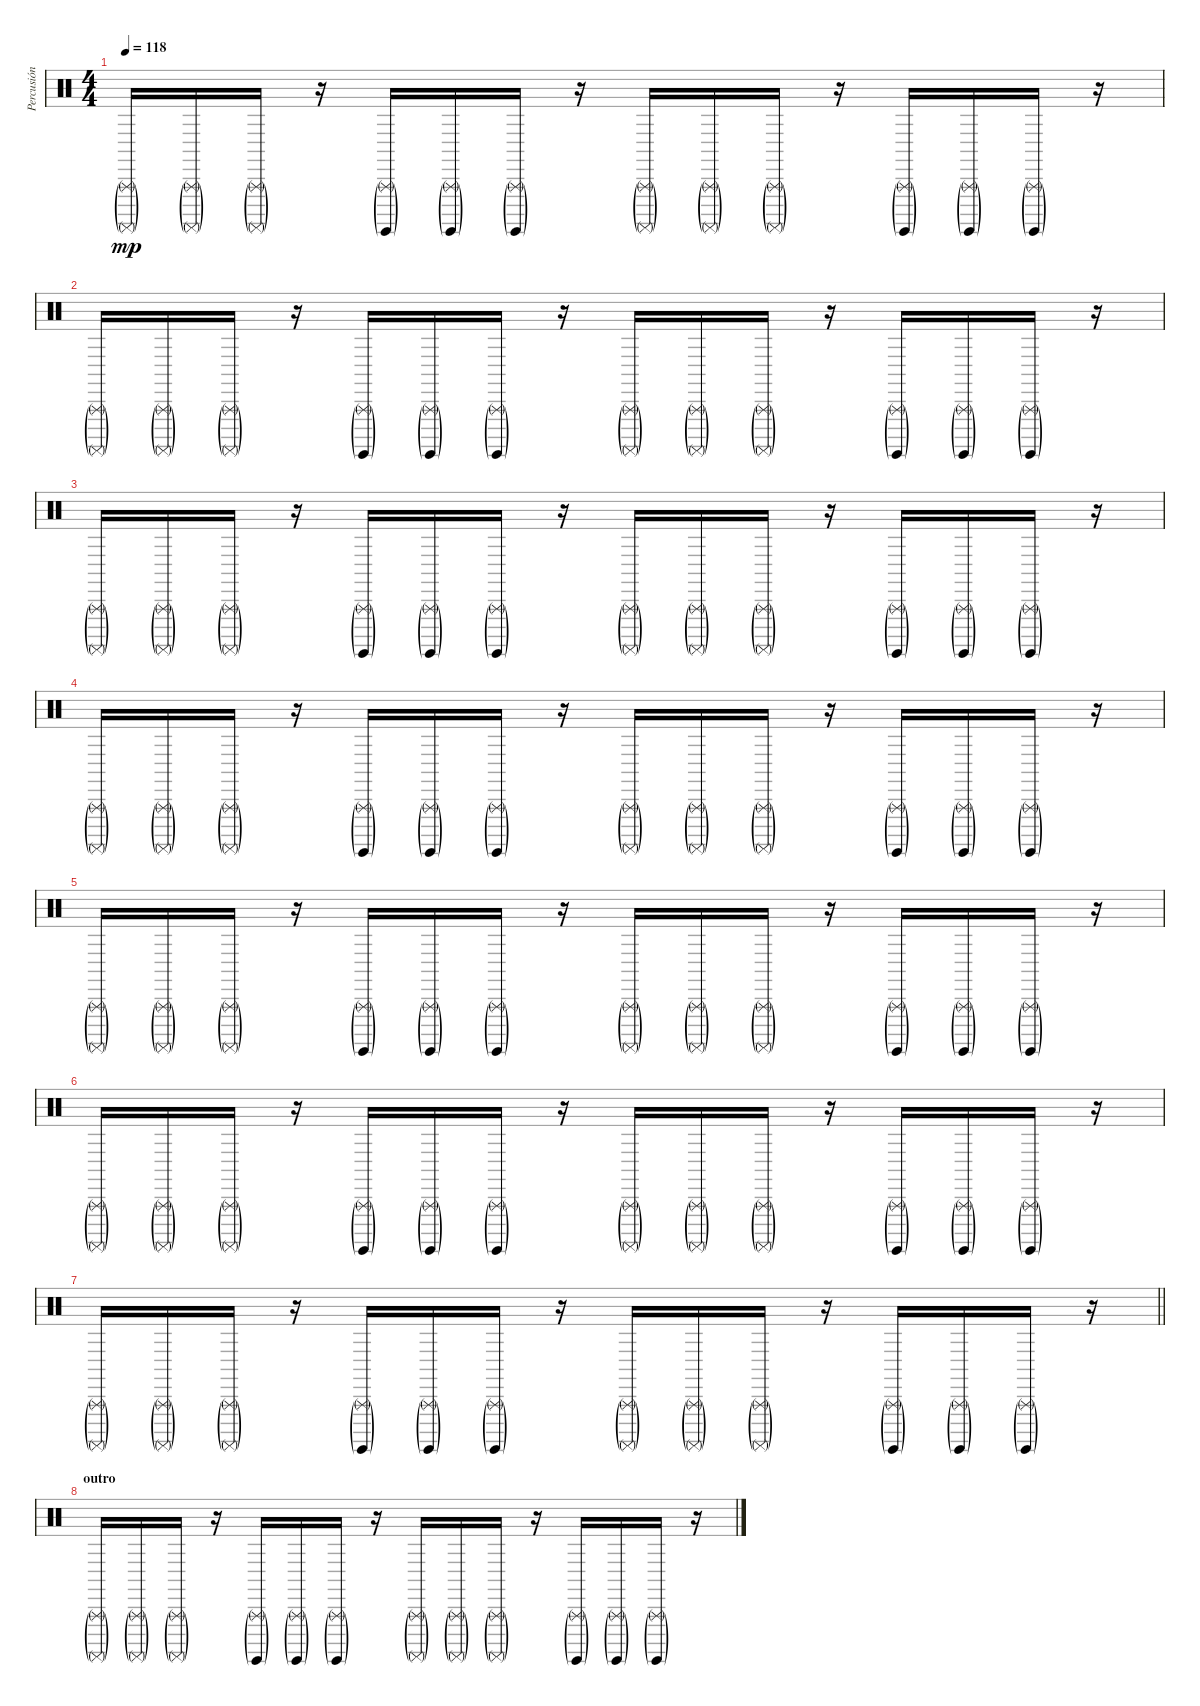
\track ("Percusión" "Percusión") {instrument percussion}
\staff {score}
\articulation defaults
\ts (4 4)
\tempo 118
\clef neutral
\ks c
("Triangle (rnute)"{g} "Surdo (mute)"{g}).16{dy mp} ("Triangle (rnute)"{g} "Surdo (mute)"{g}).16 ("Triangle (rnute)"{g} "Surdo (mute)"{g}).16 r.16 ("Triangle (rnute)"{g} "Surdo (hit)"{g}).16 ("Triangle (rnute)"{g} "Surdo (hit)"{g}).16 ("Triangle (rnute)"{g} "Surdo (hit)"{g}).16 r.16 ("Triangle (rnute)"{g} "Surdo (mute)"{g}).16 ("Triangle (rnute)"{g} "Surdo (mute)"{g}).16 ("Triangle (rnute)"{g} "Surdo (mute)"{g}).16 r.16 ("Triangle (rnute)"{g} "Surdo (hit)"{g}).16 ("Triangle (rnute)"{g} "Surdo (hit)"{g}).16 ("Triangle (rnute)"{g} "Surdo (hit)"{g}).16 r.16 |
("Triangle (rnute)"{g} "Surdo (mute)"{g}).16 ("Triangle (rnute)"{g} "Surdo (mute)"{g}).16 ("Triangle (rnute)"{g} "Surdo (mute)"{g}).16 r.16 ("Triangle (rnute)"{g} "Surdo (hit)"{g}).16 ("Triangle (rnute)"{g} "Surdo (hit)"{g}).16 ("Triangle (rnute)"{g} "Surdo (hit)"{g}).16 r.16 ("Triangle (rnute)"{g} "Surdo (mute)"{g}).16 ("Triangle (rnute)"{g} "Surdo (mute)"{g}).16 ("Triangle (rnute)"{g} "Surdo (mute)"{g}).16 r.16 ("Triangle (rnute)"{g} "Surdo (hit)"{g}).16 ("Triangle (rnute)"{g} "Surdo (hit)"{g}).16 ("Triangle (rnute)"{g} "Surdo (hit)"{g}).16 r.16 |
("Triangle (rnute)"{g} "Surdo (mute)"{g}).16 ("Triangle (rnute)"{g} "Surdo (mute)"{g}).16 ("Triangle (rnute)"{g} "Surdo (mute)"{g}).16 r.16 ("Triangle (rnute)"{g} "Surdo (hit)"{g}).16 ("Triangle (rnute)"{g} "Surdo (hit)"{g}).16 ("Triangle (rnute)"{g} "Surdo (hit)"{g}).16 r.16 ("Triangle (rnute)"{g} "Surdo (mute)"{g}).16 ("Triangle (rnute)"{g} "Surdo (mute)"{g}).16 ("Triangle (rnute)"{g} "Surdo (mute)"{g}).16 r.16 ("Triangle (rnute)"{g} "Surdo (hit)"{g}).16 ("Triangle (rnute)"{g} "Surdo (hit)"{g}).16 ("Triangle (rnute)"{g} "Surdo (hit)"{g}).16 r.16 |
("Triangle (rnute)"{g} "Surdo (mute)"{g}).16 ("Triangle (rnute)"{g} "Surdo (mute)"{g}).16 ("Triangle (rnute)"{g} "Surdo (mute)"{g}).16 r.16 ("Triangle (rnute)"{g} "Surdo (hit)"{g}).16 ("Triangle (rnute)"{g} "Surdo (hit)"{g}).16 ("Triangle (rnute)"{g} "Surdo (hit)"{g}).16 r.16 ("Triangle (rnute)"{g} "Surdo (mute)"{g}).16 ("Triangle (rnute)"{g} "Surdo (mute)"{g}).16 ("Triangle (rnute)"{g} "Surdo (mute)"{g}).16 r.16 ("Triangle (rnute)"{g} "Surdo (hit)"{g}).16 ("Triangle (rnute)"{g} "Surdo (hit)"{g}).16 ("Triangle (rnute)"{g} "Surdo (hit)"{g}).16 r.16 |
("Triangle (rnute)"{g} "Surdo (mute)"{g}).16 ("Triangle (rnute)"{g} "Surdo (mute)"{g}).16 ("Triangle (rnute)"{g} "Surdo (mute)"{g}).16 r.16 ("Triangle (rnute)"{g} "Surdo (hit)"{g}).16 ("Triangle (rnute)"{g} "Surdo (hit)"{g}).16 ("Triangle (rnute)"{g} "Surdo (hit)"{g}).16 r.16 ("Triangle (rnute)"{g} "Surdo (mute)"{g}).16 ("Triangle (rnute)"{g} "Surdo (mute)"{g}).16 ("Triangle (rnute)"{g} "Surdo (mute)"{g}).16 r.16 ("Triangle (rnute)"{g} "Surdo (hit)"{g}).16 ("Triangle (rnute)"{g} "Surdo (hit)"{g}).16 ("Triangle (rnute)"{g} "Surdo (hit)"{g}).16 r.16 |
("Triangle (rnute)"{g} "Surdo (mute)"{g}).16 ("Triangle (rnute)"{g} "Surdo (mute)"{g}).16 ("Triangle (rnute)"{g} "Surdo (mute)"{g}).16 r.16 ("Triangle (rnute)"{g} "Surdo (hit)"{g}).16 ("Triangle (rnute)"{g} "Surdo (hit)"{g}).16 ("Triangle (rnute)"{g} "Surdo (hit)"{g}).16 r.16 ("Triangle (rnute)"{g} "Surdo (mute)"{g}).16 ("Triangle (rnute)"{g} "Surdo (mute)"{g}).16 ("Triangle (rnute)"{g} "Surdo (mute)"{g}).16 r.16 ("Triangle (rnute)"{g} "Surdo (hit)"{g}).16 ("Triangle (rnute)"{g} "Surdo (hit)"{g}).16 ("Triangle (rnute)"{g} "Surdo (hit)"{g}).16 r.16 |
\barLineRight lightlight
("Triangle (rnute)"{g} "Surdo (mute)"{g}).16 ("Triangle (rnute)"{g} "Surdo (mute)"{g}).16 ("Triangle (rnute)"{g} "Surdo (mute)"{g}).16 r.16 ("Triangle (rnute)"{g} "Surdo (hit)"{g}).16 ("Triangle (rnute)"{g} "Surdo (hit)"{g}).16 ("Triangle (rnute)"{g} "Surdo (hit)"{g}).16 r.16 ("Triangle (rnute)"{g} "Surdo (mute)"{g}).16 ("Triangle (rnute)"{g} "Surdo (mute)"{g}).16 ("Triangle (rnute)"{g} "Surdo (mute)"{g}).16 r.16 ("Triangle (rnute)"{g} "Surdo (hit)"{g}).16 ("Triangle (rnute)"{g} "Surdo (hit)"{g}).16 ("Triangle (rnute)"{g} "Surdo (hit)"{g}).16 r.16 |
\section ("" "outro")
("Triangle (rnute)"{g} "Surdo (mute)"{g}).16 ("Triangle (rnute)"{g} "Surdo (mute)"{g}).16 ("Triangle (rnute)"{g} "Surdo (mute)"{g}).16 r.16 ("Triangle (rnute)"{g} "Surdo (hit)"{g}).16 ("Triangle (rnute)"{g} "Surdo (hit)"{g}).16 ("Triangle (rnute)"{g} "Surdo (hit)"{g}).16 r.16 ("Triangle (rnute)"{g} "Surdo (mute)"{g}).16 ("Triangle (rnute)"{g} "Surdo (mute)"{g}).16 ("Triangle (rnute)"{g} "Surdo (mute)"{g}).16 r.16 ("Triangle (rnute)"{g} "Surdo (hit)"{g}).16 ("Triangle (rnute)"{g} "Surdo (hit)"{g}).16 ("Triangle (rnute)"{g} "Surdo (hit)"{g}).16 r.16
